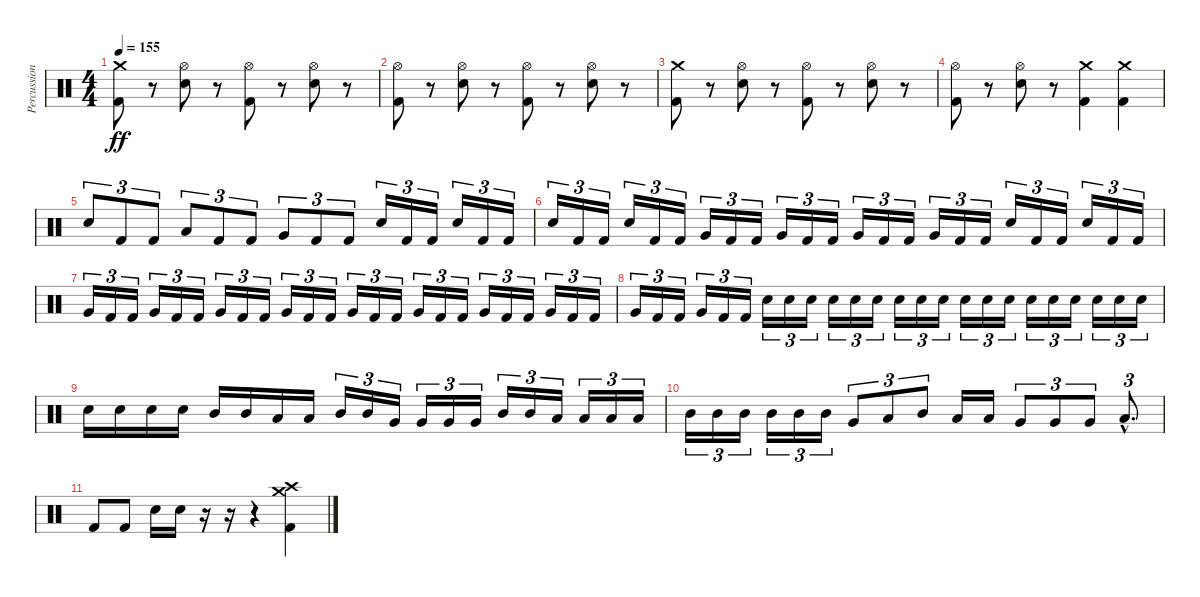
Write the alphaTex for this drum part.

\track ("Percussion" "Percussion") {instrument percussion}
\staff {score}
\articulation defaults
\ts (4 4)
\tempo 155
\clef neutral
\ks c
("Kick (hit) 2" "Crash medium (hit)").8{dy ff} r.8 ("Electric Snare (hit)" "Hi-Hat (open)").8 r.8 ("Kick (hit) 2" "Hi-Hat (open)").8 r.8 ("Electric Snare (hit)" "Hi-Hat (open)").8 r.8 |
("Kick (hit) 2" "Hi-Hat (open)").8 r.8 ("Electric Snare (hit)" "Hi-Hat (open)").8 r.8 ("Kick (hit) 2" "Hi-Hat (open)").8 r.8 ("Electric Snare (hit)" "Hi-Hat (open)").8 r.8 |
("Kick (hit) 2" "Crash medium (hit)").8 r.8 ("Electric Snare (hit)" "Hi-Hat (open)").8 r.8 ("Kick (hit) 2" "Hi-Hat (open)").8 r.8 ("Electric Snare (hit)" "Hi-Hat (open)").8 r.8 |
("Kick (hit) 2" "Hi-Hat (open)").8 r.8 ("Electric Snare (hit)" "Hi-Hat (open)").8 r.8 ("Kick (hit) 2" "Crash medium (hit)").4 ("Kick (hit) 2" "Crash medium (hit)").4 |
"Electric Snare (hit)".8{tu (3 2)} "Kick (hit) 2".8{tu (3 2)} "Kick (hit) 2".8{tu (3 2)} "Low Tom (hit)".8{tu (3 2)} "Kick (hit) 2".8{tu (3 2)} "Kick (hit) 2".8{tu (3 2)} "Very Low Tom (hit)".8{tu (3 2)} "Kick (hit) 2".8{tu (3 2)} "Kick (hit) 2".8{tu (3 2)} "Electric Snare (hit)".16{tu (3 2)} "Kick (hit) 2".16{tu (3 2)} "Kick (hit) 2".16{tu (3 2)} "Electric Snare (hit)".16{tu (3 2)} "Kick (hit) 2".16{tu (3 2)} "Kick (hit) 2".16{tu (3 2)} |
"Electric Snare (hit)".16{tu (3 2)} "Kick (hit) 2".16{tu (3 2)} "Kick (hit) 2".16{tu (3 2)} "Electric Snare (hit)".16{tu (3 2)} "Kick (hit) 2".16{tu (3 2)} "Kick (hit) 2".16{tu (3 2)} "Very Low Tom (hit)".16{tu (3 2)} "Kick (hit) 2".16{tu (3 2)} "Kick (hit) 2".16{tu (3 2)} "Very Low Tom (hit)".16{tu (3 2)} "Kick (hit) 2".16{tu (3 2)} "Kick (hit) 2".16{tu (3 2)} "Very Low Tom (hit)".16{tu (3 2)} "Kick (hit) 2".16{tu (3 2)} "Kick (hit) 2".16{tu (3 2)} "Very Low Tom (hit)".16{tu (3 2)} "Kick (hit) 2".16{tu (3 2)} "Kick (hit) 2".16{tu (3 2)} "Electric Snare (hit)".16{tu (3 2)} "Kick (hit) 2".16{tu (3 2)} "Kick (hit) 2".16{tu (3 2)} "Electric Snare (hit)".16{tu (3 2)} "Kick (hit) 2".16{tu (3 2)} "Kick (hit) 2".16{tu (3 2)} |
"Very Low Tom (hit)".16{tu (3 2)} "Kick (hit) 2".16{tu (3 2)} "Kick (hit) 2".16{tu (3 2)} "Very Low Tom (hit)".16{tu (3 2)} "Kick (hit) 2".16{tu (3 2)} "Kick (hit) 2".16{tu (3 2)} "Very Low Tom (hit)".16{tu (3 2)} "Kick (hit) 2".16{tu (3 2)} "Kick (hit) 2".16{tu (3 2)} "Very Low Tom (hit)".16{tu (3 2)} "Kick (hit) 2".16{tu (3 2)} "Kick (hit) 2".16{tu (3 2)} "Very Low Tom (hit)".16{tu (3 2)} "Kick (hit) 2".16{tu (3 2)} "Kick (hit) 2".16{tu (3 2)} "Very Low Tom (hit)".16{tu (3 2)} "Kick (hit) 2".16{tu (3 2)} "Kick (hit) 2".16{tu (3 2)} "Very Low Tom (hit)".16{tu (3 2)} "Kick (hit) 2".16{tu (3 2)} "Kick (hit) 2".16{tu (3 2)} "Very Low Tom (hit)".16{tu (3 2)} "Kick (hit) 2".16{tu (3 2)} "Kick (hit) 2".16{tu (3 2)} |
"Very Low Tom (hit)".16{tu (3 2)} "Kick (hit) 2".16{tu (3 2)} "Kick (hit) 2".16{tu (3 2)} "Very Low Tom (hit)".16{tu (3 2)} "Kick (hit) 2".16{tu (3 2)} "Kick (hit) 2".16{tu (3 2)} "Electric Snare (hit)".16{tu (3 2)} "Electric Snare (hit)".16{tu (3 2)} "Electric Snare (hit)".16{tu (3 2)} "Electric Snare (hit)".16{tu (3 2)} "Electric Snare (hit)".16{tu (3 2)} "Electric Snare (hit)".16{tu (3 2)} "Electric Snare (hit)".16{tu (3 2)} "Electric Snare (hit)".16{tu (3 2)} "Electric Snare (hit)".16{tu (3 2)} "Electric Snare (hit)".16{tu (3 2)} "Electric Snare (hit)".16{tu (3 2)} "Electric Snare (hit)".16{tu (3 2)} "Electric Snare (hit)".16{tu (3 2)} "Electric Snare (hit)".16{tu (3 2)} "Electric Snare (hit)".16{tu (3 2)} "Electric Snare (hit)".16{tu (3 2)} "Electric Snare (hit)".16{tu (3 2)} "Electric Snare (hit)".16{tu (3 2)} |
"Electric Snare (hit)".16 "Electric Snare (hit)".16 "Electric Snare (hit)".16 "Electric Snare (hit)".16 "Mid Tom (hit)".16 "Mid Tom (hit)".16 "Low Tom (hit)".16 "Low Tom (hit)".16 "Mid Tom (hit)".16{tu (3 2)} "Mid Tom (hit)".16{tu (3 2)} "Very Low Tom (hit)".16{tu (3 2)} "Very Low Tom (hit)".16{tu (3 2)} "Very Low Tom (hit)".16{tu (3 2)} "Very Low Tom (hit)".16{tu (3 2)} "Mid Tom (hit)".16{tu (3 2)} "Mid Tom (hit)".16{tu (3 2)} "Low Tom (hit)".16{tu (3 2)} "Low Tom (hit)".16{tu (3 2)} "Low Tom (hit)".16{tu (3 2)} "Low Tom (hit)".16{tu (3 2)} |
"Mid Tom (hit)".16{tu (3 2)} "Mid Tom (hit)".16{tu (3 2)} "Mid Tom (hit)".16{tu (3 2)} "Mid Tom (hit)".16{tu (3 2)} "Mid Tom (hit)".16{tu (3 2)} "Mid Tom (hit)".16{tu (3 2)} "Very Low Tom (hit)".8{tu (3 2)} "Low Tom (hit)".8{tu (3 2)} "Mid Tom (hit)".8{tu (3 2)} "Low Tom (hit)".16 "Low Tom (hit)".16 "Very Low Tom (hit)".8{tu (3 2)} "Very Low Tom (hit)".8{tu (3 2)} "Very Low Tom (hit)".8{tu (3 2)} "Low Floor Tom (hit)"{hac}.8{d tu (3 2)} |
"Kick (hit) 2".8 "Kick (hit) 2".8 "Electric Snare (hit)".16 "Electric Snare (hit)".16 r.16 r.16 r.4 ("Kick (hit) 2" "Crash high (hit)" "Crash medium (hit)").4
